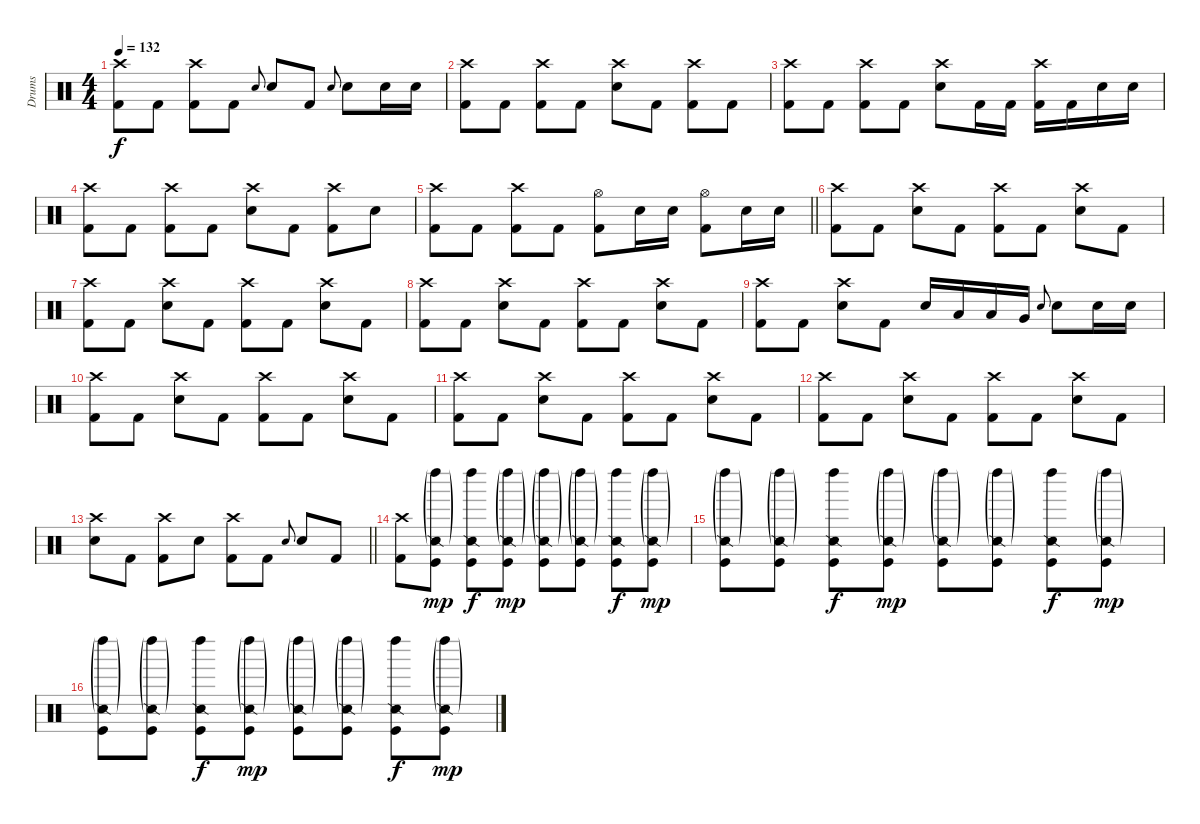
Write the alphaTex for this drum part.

\track ("Drums" "Drums") {instrument percussion}
\staff {score}
\articulation defaults
\ts (4 4)
\tempo 132
\clef neutral
\ks c
("Crash high (hit)" "Kick (hit) 2").8{dy f} "Kick (hit) 2".8 ("Crash high (hit)" "Kick (hit) 2").8 "Kick (hit) 2".8 "Electric Snare (hit)".8{gr onbeat} "Electric Snare (hit)".8 "Kick (hit) 2".8 "Electric Snare (hit)".8{gr onbeat} "Electric Snare (hit)".8 "Electric Snare (hit)".16 "Electric Snare (hit)".16 |
("Crash high (hit)" "Kick (hit) 2").8 "Kick (hit) 2".8 ("Crash high (hit)" "Kick (hit) 2").8 "Kick (hit) 2".8 ("Crash high (hit)" "Electric Snare (hit)").8 "Kick (hit) 2".8 ("Crash high (hit)" "Kick (hit) 2").8 "Kick (hit) 2".8 |
("Crash high (hit)" "Kick (hit) 2").8 "Kick (hit) 2".8 ("Crash high (hit)" "Kick (hit) 2").8 "Kick (hit) 2".8 ("Crash high (hit)" "Electric Snare (hit)").8 "Kick (hit) 2".16 "Kick (hit) 2".16 ("Crash high (hit)" "Kick (hit) 2").16 "Kick (hit) 2".16 "Electric Snare (hit)".16 "Electric Snare (hit)".16 |
("Crash high (hit)" "Kick (hit) 2").8 "Kick (hit) 2".8 ("Crash high (hit)" "Kick (hit) 2").8 "Kick (hit) 2".8 ("Crash high (hit)" "Electric Snare (hit)").8 "Kick (hit) 2".8 ("Crash high (hit)" "Kick (hit) 2").8 "Electric Snare (hit)".8 |
\barLineRight lightlight
("Crash high (hit)" "Kick (hit) 2").8 "Kick (hit) 2".8 ("Crash high (hit)" "Kick (hit) 2").8 "Kick (hit) 2".8 ("Hi-Hat (open)" "Kick (hit) 2").8 "Electric Snare (hit)".16 "Electric Snare (hit)".16 ("Hi-Hat (open)" "Kick (hit) 2").8 "Electric Snare (hit)".16 "Electric Snare (hit)".16 |
\section ("" "")
("Crash high (hit)" "Kick (hit) 2").8 "Kick (hit) 2".8 ("Crash high (hit)" "Electric Snare (hit)").8 "Kick (hit) 2".8 ("Crash high (hit)" "Kick (hit) 2").8 "Kick (hit) 2".8 ("Crash high (hit)" "Electric Snare (hit)").8 "Kick (hit) 2".8 |
("Crash high (hit)" "Kick (hit) 2").8 "Kick (hit) 2".8 ("Crash high (hit)" "Electric Snare (hit)").8 "Kick (hit) 2".8 ("Crash high (hit)" "Kick (hit) 2").8 "Kick (hit) 2".8 ("Crash high (hit)" "Electric Snare (hit)").8 "Kick (hit) 2".8 |
("Crash high (hit)" "Kick (hit) 2").8 "Kick (hit) 2".8 ("Crash high (hit)" "Electric Snare (hit)").8 "Kick (hit) 2".8 ("Crash high (hit)" "Kick (hit) 2").8 "Kick (hit) 2".8 ("Crash high (hit)" "Electric Snare (hit)").8 "Kick (hit) 2".8 |
("Crash high (hit)" "Kick (hit) 2").8 "Kick (hit) 2".8 ("Crash high (hit)" "Electric Snare (hit)").8 "Kick (hit) 2".8 "Electric Snare (hit)".16 "Low Tom (hit)".16 "Low Tom (hit)".16 "Very Low Tom (hit)".16 "Electric Snare (hit)".8{gr onbeat} "Electric Snare (hit)".8 "Electric Snare (hit)".16 "Electric Snare (hit)".16 |
("Crash high (hit)" "Kick (hit) 2").8 "Kick (hit) 2".8 ("Crash high (hit)" "Electric Snare (hit)").8 "Kick (hit) 2".8 ("Crash high (hit)" "Kick (hit) 2").8 "Kick (hit) 2".8 ("Crash high (hit)" "Electric Snare (hit)").8 "Kick (hit) 2".8 |
("Crash high (hit)" "Kick (hit) 2").8 "Kick (hit) 2".8 ("Crash high (hit)" "Electric Snare (hit)").8 "Kick (hit) 2".8 ("Crash high (hit)" "Kick (hit) 2").8 "Kick (hit) 2".8 ("Crash high (hit)" "Electric Snare (hit)").8 "Kick (hit) 2".8 |
("Crash high (hit)" "Kick (hit) 2").8 "Kick (hit) 2".8 ("Crash high (hit)" "Electric Snare (hit)").8 "Kick (hit) 2".8 ("Crash high (hit)" "Kick (hit) 2").8 "Kick (hit) 2".8 ("Crash high (hit)" "Electric Snare (hit)").8 "Kick (hit) 2".8 |
\barLineRight lightlight
("Crash high (hit)" "Electric Snare (hit)").8 "Kick (hit) 2".8 ("Crash high (hit)" "Kick (hit) 2").8 "Electric Snare (hit)".8 ("Crash high (hit)" "Kick (hit) 2").8 "Kick (hit) 2".8 "Electric Snare (hit)".8{gr onbeat} "Electric Snare (hit)".8 "Kick (hit) 2".8 |
\section ("" "")
("Crash high (hit)" "Kick (hit) 2").8{volume 7} ("Left Maraca (hit)"{g} "Snare (side stick) 2"{g} "Kick (hit)").8{dy mp} ("Left Maraca (hit)" "Snare (side stick) 2" "Kick (hit)").8{dy f} ("Left Maraca (hit)"{g} "Snare (side stick) 2"{g} "Kick (hit)").8{dy mp} ("Left Maraca (hit)"{g} "Snare (side stick) 2"{g} "Kick (hit)").8 ("Left Maraca (hit)"{g} "Snare (side stick) 2"{g} "Kick (hit)").8 ("Left Maraca (hit)" "Snare (side stick) 2" "Kick (hit)").8{dy f} ("Left Maraca (hit)"{g} "Snare (side stick) 2"{g} "Kick (hit)").8{dy mp} |
("Left Maraca (hit)"{g} "Snare (side stick) 2"{g} "Kick (hit)").8 ("Left Maraca (hit)"{g} "Snare (side stick) 2"{g} "Kick (hit)").8 ("Left Maraca (hit)" "Snare (side stick) 2" "Kick (hit)").8{dy f} ("Left Maraca (hit)"{g} "Snare (side stick) 2"{g} "Kick (hit)").8{dy mp} ("Left Maraca (hit)"{g} "Snare (side stick) 2"{g} "Kick (hit)").8 ("Left Maraca (hit)"{g} "Snare (side stick) 2"{g} "Kick (hit)").8 ("Left Maraca (hit)" "Snare (side stick) 2" "Kick (hit)").8{dy f} ("Left Maraca (hit)"{g} "Snare (side stick) 2"{g} "Kick (hit)").8{dy mp} |
("Left Maraca (hit)"{g} "Snare (side stick) 2"{g} "Kick (hit)").8 ("Left Maraca (hit)"{g} "Snare (side stick) 2"{g} "Kick (hit)").8 ("Left Maraca (hit)" "Snare (side stick) 2" "Kick (hit)").8{dy f} ("Left Maraca (hit)"{g} "Snare (side stick) 2"{g} "Kick (hit)").8{dy mp} ("Left Maraca (hit)"{g} "Snare (side stick) 2"{g} "Kick (hit)").8 ("Left Maraca (hit)"{g} "Snare (side stick) 2"{g} "Kick (hit)").8 ("Left Maraca (hit)" "Snare (side stick) 2" "Kick (hit)").8{dy f} ("Left Maraca (hit)"{g} "Snare (side stick) 2"{g} "Kick (hit)").8{dy mp}
